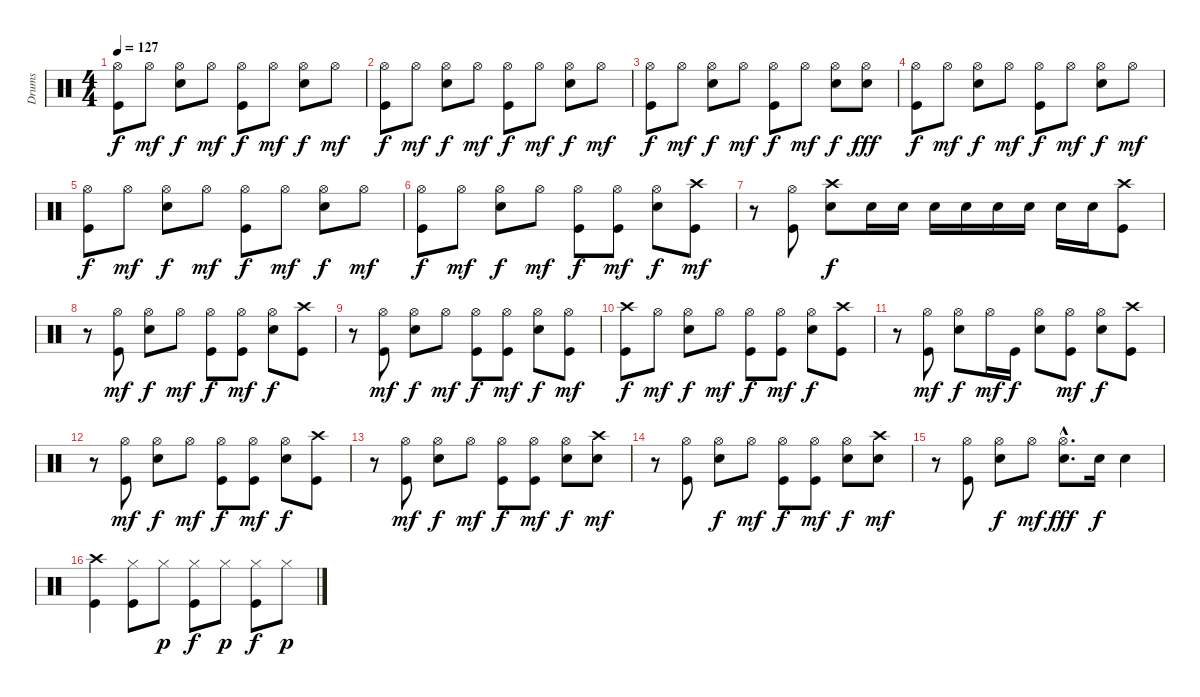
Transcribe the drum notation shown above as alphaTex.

\track ("Drums" "Drums") {instrument percussion}
\staff {score}
\articulation defaults
\ts (4 4)
\tempo 127
\clef neutral
\ks c
("Hi-Hat (open)" "Kick (hit)").8{dy f} "Hi-Hat (open)".8{dy mf} ("Hi-Hat (open)" "Snare (hit) 2").8{dy f} "Hi-Hat (open)".8{dy mf} ("Hi-Hat (open)" "Kick (hit)").8{dy f} "Hi-Hat (open)".8{dy mf} ("Hi-Hat (open)" "Snare (hit) 2").8{dy f} "Hi-Hat (open)".8{dy mf} |
("Hi-Hat (open)" "Kick (hit)").8{dy f} "Hi-Hat (open)".8{dy mf} ("Hi-Hat (open)" "Snare (hit) 2").8{dy f} "Hi-Hat (open)".8{dy mf} ("Hi-Hat (open)" "Kick (hit)").8{dy f} "Hi-Hat (open)".8{dy mf} ("Hi-Hat (open)" "Snare (hit) 2").8{dy f} "Hi-Hat (open)".8{dy mf} |
("Hi-Hat (open)" "Kick (hit)").8{dy f} "Hi-Hat (open)".8{dy mf} ("Hi-Hat (open)" "Snare (hit) 2").8{dy f} "Hi-Hat (open)".8{dy mf} ("Hi-Hat (open)" "Kick (hit)").8{dy f} "Hi-Hat (open)".8{dy mf} ("Hi-Hat (open)" "Snare (hit) 2").8{dy f} ("Hi-Hat (open)" "Snare (hit) 2").8{dy fff} |
("Hi-Hat (open)" "Kick (hit)").8{dy f} "Hi-Hat (open)".8{dy mf} ("Hi-Hat (open)" "Snare (hit) 2").8{dy f} "Hi-Hat (open)".8{dy mf} ("Hi-Hat (open)" "Kick (hit)").8{dy f} "Hi-Hat (open)".8{dy mf} ("Hi-Hat (open)" "Snare (hit) 2").8{dy f} "Hi-Hat (open)".8{dy mf} |
("Hi-Hat (open)" "Kick (hit)").8{dy f} "Hi-Hat (open)".8{dy mf} ("Hi-Hat (open)" "Snare (hit) 2").8{dy f} "Hi-Hat (open)".8{dy mf} ("Hi-Hat (open)" "Kick (hit)").8{dy f} "Hi-Hat (open)".8{dy mf} ("Hi-Hat (open)" "Snare (hit) 2").8{dy f} "Hi-Hat (open)".8{dy mf} |
("Hi-Hat (open)" "Kick (hit)").8{dy f} "Hi-Hat (open)".8{dy mf} ("Hi-Hat (open)" "Snare (hit) 2").8{dy f} "Hi-Hat (open)".8{dy mf} ("Hi-Hat (open)" "Kick (hit)").8{dy f} ("Hi-Hat (open)" "Kick (hit)").8{dy mf} ("Hi-Hat (open)" "Snare (hit) 2").8{dy f} ("Crash high (hit)" "Kick (hit)").8{dy mf} |
r.8 ("Hi-Hat (open)" "Kick (hit)").8 ("Crash high (hit)" "Snare (hit) 2").8{dy f} "Snare (hit) 2".16 "Snare (hit) 2".16 "Snare (hit) 2".16 "Snare (hit) 2".16 "Snare (hit) 2".16 "Snare (hit) 2".16 "Snare (hit) 2".16 "Snare (hit) 2".16 ("Crash high (hit)" "Kick (hit)").8 |
r.8 ("Hi-Hat (open)" "Kick (hit)").8{dy mf} ("Hi-Hat (open)" "Snare (hit) 2").8{dy f} "Hi-Hat (open)".8{dy mf} ("Hi-Hat (open)" "Kick (hit)").8{dy f} ("Hi-Hat (open)" "Kick (hit)").8{dy mf} ("Hi-Hat (open)" "Snare (hit) 2").8{dy f} ("Crash high (hit)" "Kick (hit)").8 |
r.8 ("Hi-Hat (open)" "Kick (hit)").8{dy mf} ("Hi-Hat (open)" "Snare (hit) 2").8{dy f} "Hi-Hat (open)".8{dy mf} ("Hi-Hat (open)" "Kick (hit)").8{dy f} ("Hi-Hat (open)" "Kick (hit)").8{dy mf} ("Hi-Hat (open)" "Snare (hit) 2").8{dy f} ("Hi-Hat (open)" "Kick (hit)").8{dy mf} |
("Crash high (hit)" "Kick (hit)").8{dy f} "Hi-Hat (open)".8{dy mf} ("Hi-Hat (open)" "Snare (hit) 2").8{dy f} "Hi-Hat (open)".8{dy mf} ("Hi-Hat (open)" "Kick (hit)").8{dy f} ("Hi-Hat (open)" "Kick (hit)").8{dy mf} ("Hi-Hat (open)" "Snare (hit) 2").8{dy f} ("Crash high (hit)" "Kick (hit)").8 |
r.8 ("Hi-Hat (open)" "Kick (hit)").8{dy mf} ("Hi-Hat (open)" "Snare (hit) 2").8{dy f} "Hi-Hat (open)".16{dy mf} "Kick (hit)".16{dy f} ("Hi-Hat (open)" "Snare (hit) 2").8 ("Hi-Hat (open)" "Kick (hit)").8{dy mf} ("Hi-Hat (open)" "Snare (hit) 2").8{dy f} ("Crash high (hit)" "Kick (hit)").8 |
r.8 ("Hi-Hat (open)" "Kick (hit)").8{dy mf} ("Hi-Hat (open)" "Snare (hit) 2").8{dy f} "Hi-Hat (open)".8{dy mf} ("Hi-Hat (open)" "Kick (hit)").8{dy f} ("Hi-Hat (open)" "Kick (hit)").8{dy mf} ("Hi-Hat (open)" "Snare (hit) 2").8{dy f} ("Crash high (hit)" "Kick (hit)").8 |
r.8 ("Hi-Hat (open)" "Kick (hit)").8{dy mf} ("Hi-Hat (open)" "Snare (hit) 2").8{dy f} "Hi-Hat (open)".8{dy mf} ("Hi-Hat (open)" "Kick (hit)").8{dy f} ("Hi-Hat (open)" "Kick (hit)").8{dy mf} ("Hi-Hat (open)" "Snare (hit) 2").8{dy f} ("Crash high (hit)" "Snare (hit) 2").8{dy mf} |
r.8 ("Hi-Hat (open)" "Kick (hit)").8 ("Hi-Hat (open)" "Snare (hit) 2").8{dy f} "Hi-Hat (open)".8{dy mf} ("Hi-Hat (open)" "Kick (hit)").8{dy f} ("Hi-Hat (open)" "Kick (hit)").8{dy mf} ("Hi-Hat (open)" "Snare (hit) 2").8{dy f} ("Crash high (hit)" "Snare (hit) 2").8{dy mf} |
r.8 ("Hi-Hat (open)" "Kick (hit)").8 ("Hi-Hat (open)" "Snare (hit) 2").8{dy f} "Hi-Hat (open)".8{dy mf} ("Hi-Hat (open)"{hac} "Snare (hit) 2"{hac}).8{d dy fff} "Snare (hit) 2".16{dy f} "Snare (hit) 2".4 |
("Crash high (hit)" "Kick (hit)").4 ("Hi-Hat (closed)" "Kick (hit)").8 "Hi-Hat (closed)".8{dy p} ("Hi-Hat (closed)" "Kick (hit)").8{dy f} "Hi-Hat (closed)".8{dy p} ("Hi-Hat (closed)" "Kick (hit)").8{dy f} "Hi-Hat (closed)".8{dy p}
